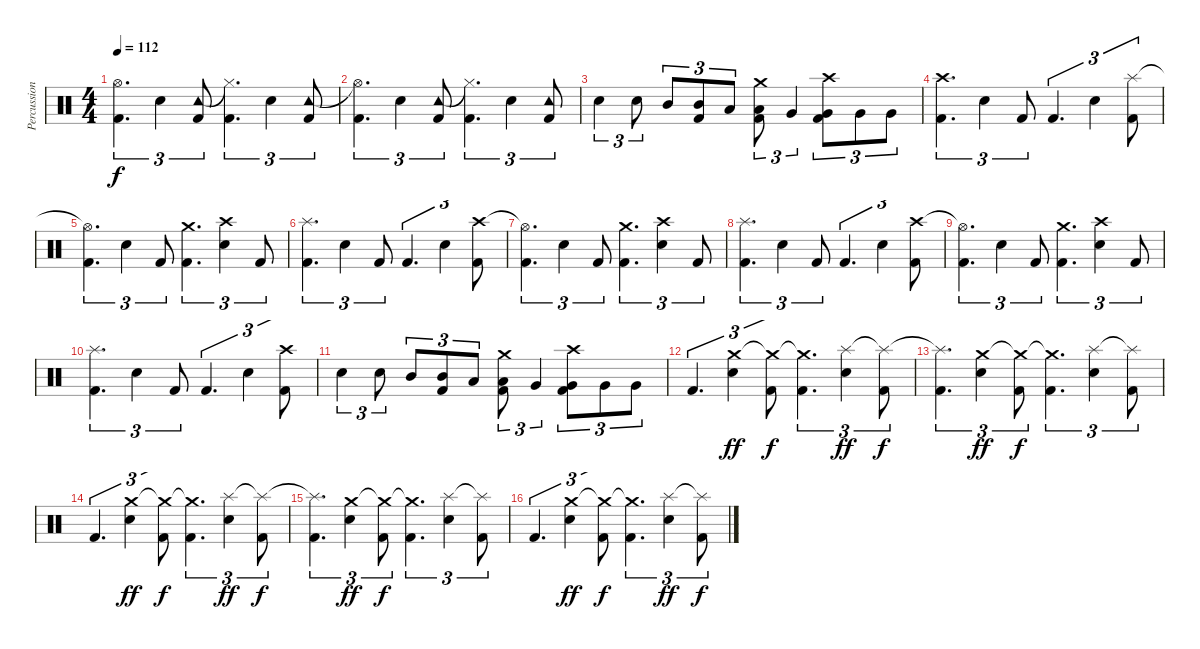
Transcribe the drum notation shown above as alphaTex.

\track ("Percussioni" "Percussion") {instrument percussion}
\staff {score}
\articulation defaults
\ts (4 4)
\tempo 112
\clef neutral
\ks c
("Hi-Hat (open)"{t} "Kick (hit) 2").4{d tu (3 2) dy f} "Snare (hit) 2".4{tu (3 2)} ("Tambourine (hit)" "Kick (hit) 2").8{tu (3 2)} ("Hi-Hat (closed)"{t} "Kick (hit) 2").4{d tu (3 2)} "Snare (hit) 2".4{tu (3 2)} ("Tambourine (hit)" "Kick (hit) 2").8{tu (3 2)} |
("Hi-Hat (open)"{t} "Kick (hit) 2").4{d tu (3 2)} "Snare (hit) 2".4{tu (3 2)} ("Tambourine (hit)" "Kick (hit) 2").8{tu (3 2)} ("Hi-Hat (closed)"{t} "Kick (hit) 2").4{d tu (3 2)} "Snare (hit) 2".4{tu (3 2)} ("Tambourine (hit)" "Kick (hit) 2").8{tu (3 2)} |
"Snare (hit) 2".4{tu (3 2)} "Snare (hit) 2".8{tu (3 2)} "Mid Tom (hit)".8{tu (3 2)} ("Mid Tom (hit)" "Kick (hit) 2").8{tu (3 2)} "Low Tom (hit)".8{tu (3 2)} ("Crash medium (hit)" "Low Tom (hit)" "Kick (hit) 2").8{tu (3 2)} "Very Low Tom (hit)".4{tu (3 2)} ("Crash high (hit)" "Very Low Tom (hit)" "Kick (hit) 2").8{tu (3 2)} "Very Low Tom (hit)".8{tu (3 2)} "Very Low Tom (hit)".8{tu (3 2)} |
("Crash high (hit)" "Kick (hit) 2").4{d tu (3 2)} "Snare (hit) 2".4{tu (3 2)} "Kick (hit) 2".8{tu (3 2)} "Kick (hit) 2".4{d tu (3 2)} "Snare (hit) 2".4{tu (3 2)} ("Splash (hit)" "Kick (hit) 2").8{tu (3 2)} |
("Hi-Hat (open)"{t} "Kick (hit) 2").4{d tu (3 2)} "Snare (hit) 2".4{tu (3 2)} "Kick (hit) 2".8{tu (3 2)} ("Crash medium (hit)" "Kick (hit) 2").4{d tu (3 2)} ("Crash high (hit)" "Snare (hit) 2").4{tu (3 2)} "Kick (hit) 2".8{tu (3 2)} |
("Splash (hit)" "Kick (hit) 2").4{d tu (3 2)} "Snare (hit) 2".4{tu (3 2)} "Kick (hit) 2".8{tu (3 2)} "Kick (hit) 2".4{d tu (3 2)} "Snare (hit) 2".4{tu (3 2)} ("Crash high (hit)" "Kick (hit) 2").8{tu (3 2)} |
("Hi-Hat (open)"{t} "Kick (hit) 2").4{d tu (3 2)} "Snare (hit) 2".4{tu (3 2)} "Kick (hit) 2".8{tu (3 2)} ("Crash medium (hit)" "Kick (hit) 2").4{d tu (3 2)} ("Crash high (hit)" "Snare (hit) 2").4{tu (3 2)} "Kick (hit) 2".8{tu (3 2)} |
("Splash (hit)" "Kick (hit) 2").4{d tu (3 2)} "Snare (hit) 2".4{tu (3 2)} "Kick (hit) 2".8{tu (3 2)} "Kick (hit) 2".4{d tu (3 2)} "Snare (hit) 2".4{tu (3 2)} ("Crash high (hit)" "Kick (hit) 2").8{tu (3 2)} |
("Hi-Hat (open)"{t} "Kick (hit) 2").4{d tu (3 2)} "Snare (hit) 2".4{tu (3 2)} "Kick (hit) 2".8{tu (3 2)} ("Crash medium (hit)" "Kick (hit) 2").4{d tu (3 2)} ("Crash high (hit)" "Snare (hit) 2").4{tu (3 2)} "Kick (hit) 2".8{tu (3 2)} |
("Splash (hit)" "Kick (hit) 2").4{d tu (3 2)} "Snare (hit) 2".4{tu (3 2)} "Kick (hit) 2".8{tu (3 2)} "Kick (hit) 2".4{d tu (3 2)} "Snare (hit) 2".4{tu (3 2)} ("Crash high (hit)" "Kick (hit) 2").8{tu (3 2)} |
"Snare (hit) 2".4{tu (3 2)} "Snare (hit) 2".8{tu (3 2)} "Mid Tom (hit)".8{tu (3 2)} ("Mid Tom (hit)" "Kick (hit) 2").8{tu (3 2)} "Low Tom (hit)".8{tu (3 2)} ("Crash medium (hit)" "Low Tom (hit)" "Kick (hit) 2").8{tu (3 2)} "Very Low Tom (hit)".4{tu (3 2)} ("Crash high (hit)" "Very Low Tom (hit)" "Kick (hit) 2").8{tu (3 2)} "Very Low Tom (hit)".8{tu (3 2)} "Very Low Tom (hit)".8{tu (3 2)} |
"Kick (hit) 2".4{d tu (3 2)} ("Crash medium (hit)" "Snare (hit) 2").4{tu (3 2) dy ff} ("Crash medium (hit)"{t} "Kick (hit) 2").8{tu (3 2) dy f} ("Crash medium (hit)"{t} "Kick (hit) 2").4{d tu (3 2)} ("Splash (hit)" "Snare (hit) 2").4{tu (3 2) dy ff} ("Splash (hit)"{t} "Kick (hit) 2").8{tu (3 2) dy f} |
("Splash (hit)"{t} "Kick (hit) 2").4{d tu (3 2)} ("Crash medium (hit)" "Snare (hit) 2").4{tu (3 2) dy ff} ("Crash medium (hit)"{t} "Kick (hit) 2").8{tu (3 2) dy f} ("Crash medium (hit)"{t} "Kick (hit) 2").4{d tu (3 2)} ("Splash (hit)" "Snare (hit) 2").4{tu (3 2)} ("Splash (hit)"{t} "Kick (hit) 2").8{tu (3 2)} |
"Kick (hit) 2".4{d tu (3 2)} ("Crash medium (hit)" "Snare (hit) 2").4{tu (3 2) dy ff} ("Crash medium (hit)"{t} "Kick (hit) 2").8{tu (3 2) dy f} ("Crash medium (hit)"{t} "Kick (hit) 2").4{d tu (3 2)} ("Splash (hit)" "Snare (hit) 2").4{tu (3 2) dy ff} ("Splash (hit)"{t} "Kick (hit) 2").8{tu (3 2) dy f} |
("Splash (hit)"{t} "Kick (hit) 2").4{d tu (3 2)} ("Crash medium (hit)" "Snare (hit) 2").4{tu (3 2) dy ff} ("Crash medium (hit)"{t} "Kick (hit) 2").8{tu (3 2) dy f} ("Crash medium (hit)"{t} "Kick (hit) 2").4{d tu (3 2)} ("Splash (hit)" "Snare (hit) 2").4{tu (3 2)} ("Splash (hit)"{t} "Kick (hit) 2").8{tu (3 2)} |
"Kick (hit) 2".4{d tu (3 2)} ("Crash medium (hit)" "Snare (hit) 2").4{tu (3 2) dy ff} ("Crash medium (hit)"{t} "Kick (hit) 2").8{tu (3 2) dy f} ("Crash medium (hit)"{t} "Kick (hit) 2").4{d tu (3 2)} ("Splash (hit)" "Snare (hit) 2").4{tu (3 2) dy ff} ("Splash (hit)"{t} "Kick (hit) 2").8{tu (3 2) dy f}
